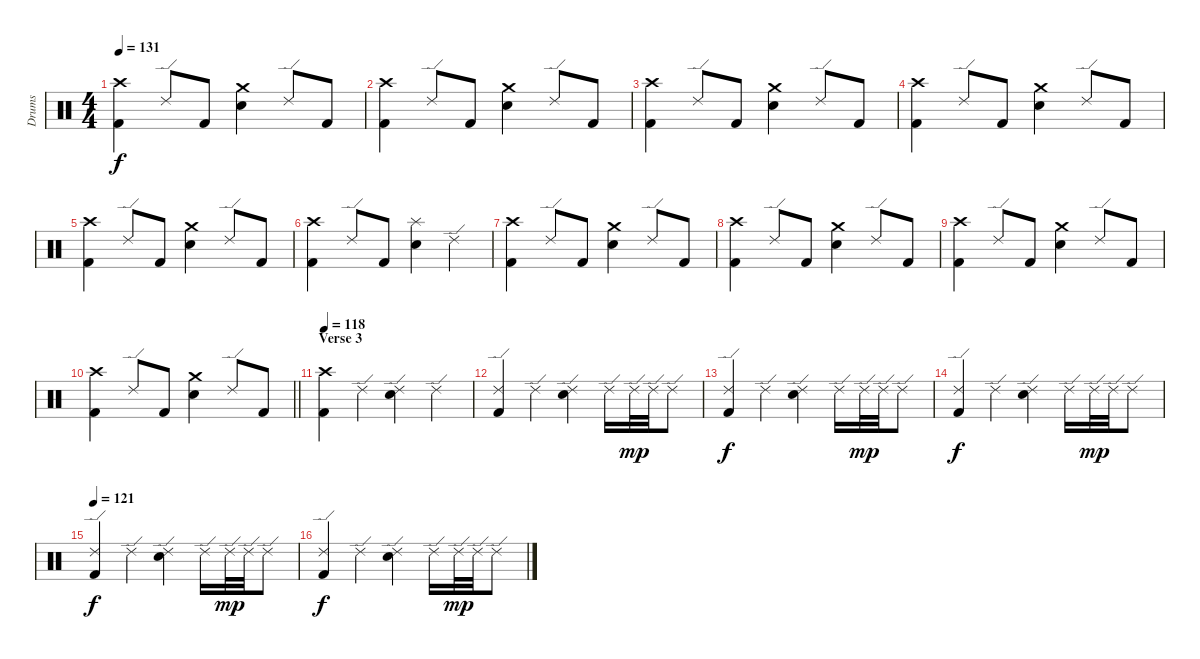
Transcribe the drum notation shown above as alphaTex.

\track ("Drums" "Drums") {instrument percussion}
\staff {score}
\articulation defaults
\ts (4 4)
\tempo 131
\clef neutral
\ks c
("Crash high (hit)" "Kick (hit) 2").4{dy f} "Ride (edge) 2".8 "Kick (hit) 2".8 ("Crash medium (hit)" "Electric Snare (hit)").4 "Ride (edge) 2".8 "Kick (hit) 2".8 |
("Crash high (hit)" "Kick (hit) 2").4 "Ride (edge) 2".8 "Kick (hit) 2".8 ("Crash medium (hit)" "Electric Snare (hit)").4 "Ride (edge) 2".8 "Kick (hit) 2".8 |
("Crash high (hit)" "Kick (hit) 2").4 "Ride (edge) 2".8 "Kick (hit) 2".8 ("Crash medium (hit)" "Electric Snare (hit)").4 "Ride (edge) 2".8 "Kick (hit) 2".8 |
("Crash high (hit)" "Kick (hit) 2").4 "Ride (edge) 2".8 "Kick (hit) 2".8 ("Crash medium (hit)" "Electric Snare (hit)").4 "Ride (edge) 2".8 "Kick (hit) 2".8 |
("Crash high (hit)" "Kick (hit) 2").4 "Ride (edge) 2".8 "Kick (hit) 2".8 ("Crash medium (hit)" "Electric Snare (hit)").4 "Ride (edge) 2".8 "Kick (hit) 2".8 |
("Crash high (hit)" "Kick (hit) 2").4 "Ride (edge) 2".8 "Kick (hit) 2".8 ("Splash (hit)" "Electric Snare (hit)").4 "Ride (edge) 2".4 |
("Crash high (hit)" "Kick (hit) 2").4 "Ride (edge) 2".8 "Kick (hit) 2".8 ("Crash medium (hit)" "Electric Snare (hit)").4 "Ride (edge) 2".8 "Kick (hit) 2".8 |
("Crash high (hit)" "Kick (hit) 2").4 "Ride (edge) 2".8 "Kick (hit) 2".8 ("Crash medium (hit)" "Electric Snare (hit)").4 "Ride (edge) 2".8 "Kick (hit) 2".8 |
("Crash high (hit)" "Kick (hit) 2").4 "Ride (edge) 2".8 "Kick (hit) 2".8 ("Crash medium (hit)" "Electric Snare (hit)").4 "Ride (edge) 2".8 "Kick (hit) 2".8 |
\barLineRight lightlight
("Crash high (hit)" "Kick (hit) 2").4 "Ride (edge) 2".8 "Kick (hit) 2".8 ("Crash medium (hit)" "Electric Snare (hit)").4 "Ride (edge) 2".8 "Kick (hit) 2".8 |
\section ("" "Verse 3")
\tempo 118
("Crash high (hit)" "Kick (hit) 2").4{volume 10} "Ride (edge) 2".4 ("Ride (edge) 2" "Electric Snare (hit)").4 "Ride (edge) 2".4 |
("Ride (edge) 2" "Kick (hit) 2").4 "Ride (edge) 2".4 ("Ride (edge) 2" "Electric Snare (hit)").4 "Ride (edge) 2".16 "Ride (edge) 2".32{dy mp} "Ride (edge) 2".32 "Ride (edge) 2".8 |
("Ride (edge) 2" "Kick (hit) 2").4{dy f} "Ride (edge) 2".4 ("Ride (edge) 2" "Electric Snare (hit)").4 "Ride (edge) 2".16 "Ride (edge) 2".32{dy mp} "Ride (edge) 2".32 "Ride (edge) 2".8 |
("Ride (edge) 2" "Kick (hit) 2").4{dy f} "Ride (edge) 2".4 ("Ride (edge) 2" "Electric Snare (hit)").4 "Ride (edge) 2".16 "Ride (edge) 2".32{dy mp} "Ride (edge) 2".32 "Ride (edge) 2".8 |
\tempo 121
("Ride (edge) 2" "Kick (hit) 2").4{dy f volume 3} "Ride (edge) 2".4 ("Ride (edge) 2" "Electric Snare (hit)").4 "Ride (edge) 2".16 "Ride (edge) 2".32{dy mp} "Ride (edge) 2".32 "Ride (edge) 2".8 |
("Ride (edge) 2" "Kick (hit) 2").4{dy f} "Ride (edge) 2".4 ("Ride (edge) 2" "Electric Snare (hit)").4 "Ride (edge) 2".16 "Ride (edge) 2".32{dy mp} "Ride (edge) 2".32 "Ride (edge) 2".8
